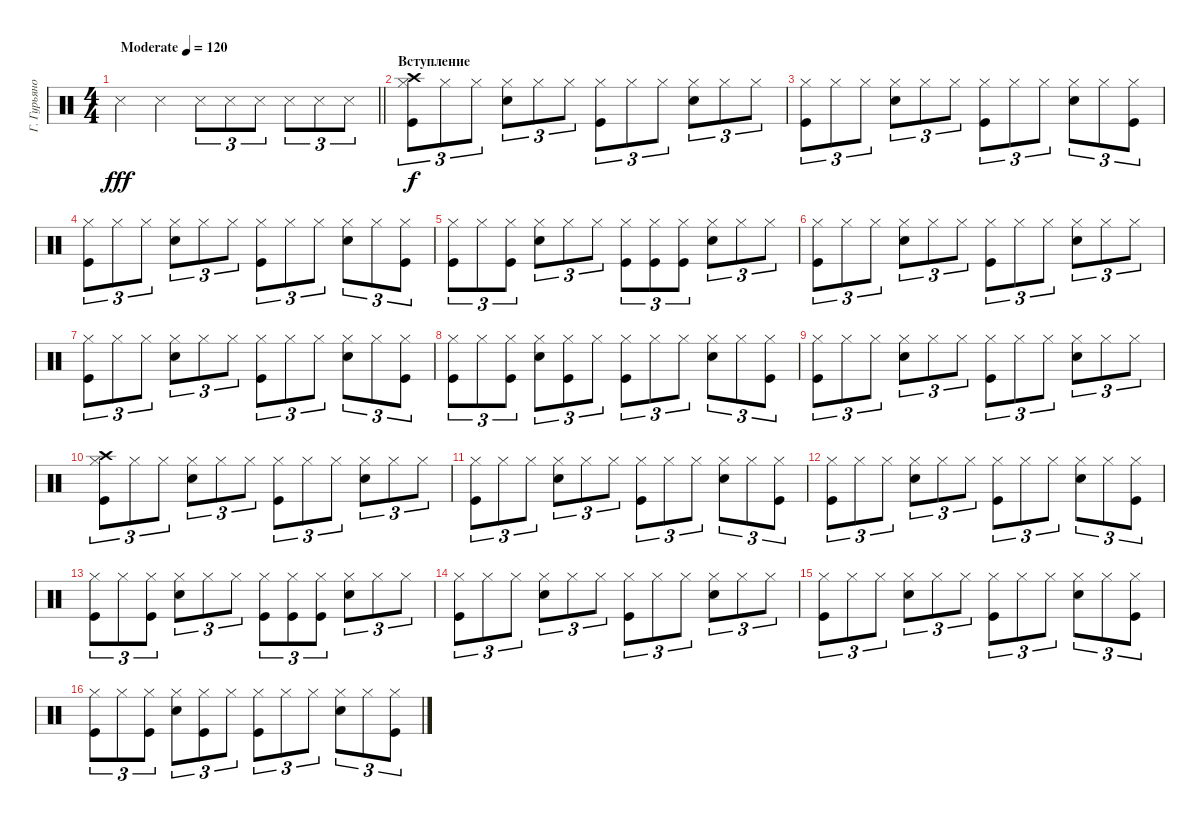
\track ("Г. Гурьянов" "Г. Гурьяно") {instrument percussion}
\staff
\articulation defaults
\ts (4 4)
\tempo (120 "Moderate")
\clef neutral
\barLineRight lightlight
\ks c "Metronome (hit)".4{dy fff} "Metronome (hit)".4 "Metronome (hit)".8{tu (3 2)} "Metronome (hit)".8{tu (3 2)} "Metronome (hit)".8{tu (3 2)} "Metronome (hit)".8{tu (3 2)} "Metronome (hit)".8{tu (3 2)} "Metronome (hit)".8{tu (3 2)}
|
\section ("" "Вступление")
("Hi-Hat (closed)" "Crash high (hit)" "Kick (hit)").8{tu (3 2) dy f} "Hi-Hat (closed)".8{tu (3 2)} "Hi-Hat (closed)".8{tu (3 2)} ("Hi-Hat (closed)" "Snare (hit) 2").8{tu (3 2)} "Hi-Hat (closed)".8{tu (3 2)} "Hi-Hat (closed)".8{tu (3 2)} ("Hi-Hat (closed)" "Kick (hit)").8{tu (3 2)} "Hi-Hat (closed)".8{tu (3 2)} "Hi-Hat (closed)".8{tu (3 2)} ("Hi-Hat (closed)" "Snare (hit) 2").8{tu (3 2)} "Hi-Hat (closed)".8{tu (3 2)} "Hi-Hat (closed)".8{tu (3 2)} |
("Hi-Hat (closed)" "Kick (hit)").8{tu (3 2)} "Hi-Hat (closed)".8{tu (3 2)} "Hi-Hat (closed)".8{tu (3 2)} ("Hi-Hat (closed)" "Snare (hit) 2").8{tu (3 2)} "Hi-Hat (closed)".8{tu (3 2)} "Hi-Hat (closed)".8{tu (3 2)} ("Hi-Hat (closed)" "Kick (hit)").8{tu (3 2)} "Hi-Hat (closed)".8{tu (3 2)} "Hi-Hat (closed)".8{tu (3 2)} ("Hi-Hat (closed)" "Snare (hit) 2").8{tu (3 2)} "Hi-Hat (closed)".8{tu (3 2)} ("Hi-Hat (closed)" "Kick (hit)").8{tu (3 2)} |
("Hi-Hat (closed)" "Kick (hit)").8{tu (3 2)} "Hi-Hat (closed)".8{tu (3 2)} "Hi-Hat (closed)".8{tu (3 2)} ("Hi-Hat (closed)" "Snare (hit) 2").8{tu (3 2)} "Hi-Hat (closed)".8{tu (3 2)} "Hi-Hat (closed)".8{tu (3 2)} ("Hi-Hat (closed)" "Kick (hit)").8{tu (3 2)} "Hi-Hat (closed)".8{tu (3 2)} "Hi-Hat (closed)".8{tu (3 2)} ("Hi-Hat (closed)" "Snare (hit) 2").8{tu (3 2)} "Hi-Hat (closed)".8{tu (3 2)} ("Hi-Hat (closed)" "Kick (hit)").8{tu (3 2)} |
("Hi-Hat (closed)" "Kick (hit)").8{tu (3 2)} "Hi-Hat (closed)".8{tu (3 2)} ("Hi-Hat (closed)" "Kick (hit)").8{tu (3 2)} ("Hi-Hat (closed)" "Snare (hit) 2").8{tu (3 2)} "Hi-Hat (closed)".8{tu (3 2)} "Hi-Hat (closed)".8{tu (3 2)} ("Hi-Hat (closed)" "Kick (hit)").8{tu (3 2)} ("Hi-Hat (closed)" "Kick (hit)").8{tu (3 2)} ("Hi-Hat (closed)" "Kick (hit)").8{tu (3 2)} ("Hi-Hat (closed)" "Snare (hit) 2").8{tu (3 2)} "Hi-Hat (closed)".8{tu (3 2)} "Hi-Hat (closed)".8{tu (3 2)} |
("Hi-Hat (closed)" "Kick (hit)").8{tu (3 2)} "Hi-Hat (closed)".8{tu (3 2)} "Hi-Hat (closed)".8{tu (3 2)} ("Hi-Hat (closed)" "Snare (hit) 2").8{tu (3 2)} "Hi-Hat (closed)".8{tu (3 2)} "Hi-Hat (closed)".8{tu (3 2)} ("Hi-Hat (closed)" "Kick (hit)").8{tu (3 2)} "Hi-Hat (closed)".8{tu (3 2)} "Hi-Hat (closed)".8{tu (3 2)} ("Hi-Hat (closed)" "Snare (hit) 2").8{tu (3 2)} "Hi-Hat (closed)".8{tu (3 2)} "Hi-Hat (closed)".8{tu (3 2)} |
("Hi-Hat (closed)" "Kick (hit)").8{tu (3 2)} "Hi-Hat (closed)".8{tu (3 2)} "Hi-Hat (closed)".8{tu (3 2)} ("Hi-Hat (closed)" "Snare (hit) 2").8{tu (3 2)} "Hi-Hat (closed)".8{tu (3 2)} "Hi-Hat (closed)".8{tu (3 2)} ("Hi-Hat (closed)" "Kick (hit)").8{tu (3 2)} "Hi-Hat (closed)".8{tu (3 2)} "Hi-Hat (closed)".8{tu (3 2)} ("Hi-Hat (closed)" "Snare (hit) 2").8{tu (3 2)} "Hi-Hat (closed)".8{tu (3 2)} ("Hi-Hat (closed)" "Kick (hit)").8{tu (3 2)} |
("Hi-Hat (closed)" "Kick (hit)").8{tu (3 2)} "Hi-Hat (closed)".8{tu (3 2)} ("Hi-Hat (closed)" "Kick (hit)").8{tu (3 2)} ("Hi-Hat (closed)" "Snare (hit) 2").8{tu (3 2)} ("Hi-Hat (closed)" "Kick (hit)").8{tu (3 2)} "Hi-Hat (closed)".8{tu (3 2)} ("Hi-Hat (closed)" "Kick (hit)").8{tu (3 2)} "Hi-Hat (closed)".8{tu (3 2)} "Hi-Hat (closed)".8{tu (3 2)} ("Hi-Hat (closed)" "Snare (hit) 2").8{tu (3 2)} "Hi-Hat (closed)".8{tu (3 2)} ("Hi-Hat (closed)" "Kick (hit)").8{tu (3 2)} |
("Hi-Hat (closed)" "Kick (hit)").8{tu (3 2)} "Hi-Hat (closed)".8{tu (3 2)} "Hi-Hat (closed)".8{tu (3 2)} ("Hi-Hat (closed)" "Snare (hit) 2").8{tu (3 2)} "Hi-Hat (closed)".8{tu (3 2)} "Hi-Hat (closed)".8{tu (3 2)} ("Hi-Hat (closed)" "Kick (hit)").8{tu (3 2)} "Hi-Hat (closed)".8{tu (3 2)} "Hi-Hat (closed)".8{tu (3 2)} ("Hi-Hat (closed)" "Snare (hit) 2").8{tu (3 2)} "Hi-Hat (closed)".8{tu (3 2)} "Hi-Hat (closed)".8{tu (3 2)} |
("Hi-Hat (closed)" "Crash high (hit)" "Kick (hit)").8{tu (3 2)} "Hi-Hat (closed)".8{tu (3 2)} "Hi-Hat (closed)".8{tu (3 2)} ("Hi-Hat (closed)" "Snare (hit) 2").8{tu (3 2)} "Hi-Hat (closed)".8{tu (3 2)} "Hi-Hat (closed)".8{tu (3 2)} ("Hi-Hat (closed)" "Kick (hit)").8{tu (3 2)} "Hi-Hat (closed)".8{tu (3 2)} "Hi-Hat (closed)".8{tu (3 2)} ("Hi-Hat (closed)" "Snare (hit) 2").8{tu (3 2)} "Hi-Hat (closed)".8{tu (3 2)} "Hi-Hat (closed)".8{tu (3 2)} |
("Hi-Hat (closed)" "Kick (hit)").8{tu (3 2)} "Hi-Hat (closed)".8{tu (3 2)} "Hi-Hat (closed)".8{tu (3 2)} ("Hi-Hat (closed)" "Snare (hit) 2").8{tu (3 2)} "Hi-Hat (closed)".8{tu (3 2)} "Hi-Hat (closed)".8{tu (3 2)} ("Hi-Hat (closed)" "Kick (hit)").8{tu (3 2)} "Hi-Hat (closed)".8{tu (3 2)} "Hi-Hat (closed)".8{tu (3 2)} ("Hi-Hat (closed)" "Snare (hit) 2").8{tu (3 2)} "Hi-Hat (closed)".8{tu (3 2)} ("Hi-Hat (closed)" "Kick (hit)").8{tu (3 2)} |
("Hi-Hat (closed)" "Kick (hit)").8{tu (3 2)} "Hi-Hat (closed)".8{tu (3 2)} "Hi-Hat (closed)".8{tu (3 2)} ("Hi-Hat (closed)" "Snare (hit) 2").8{tu (3 2)} "Hi-Hat (closed)".8{tu (3 2)} "Hi-Hat (closed)".8{tu (3 2)} ("Hi-Hat (closed)" "Kick (hit)").8{tu (3 2)} "Hi-Hat (closed)".8{tu (3 2)} "Hi-Hat (closed)".8{tu (3 2)} ("Hi-Hat (closed)" "Snare (hit) 2").8{tu (3 2)} "Hi-Hat (closed)".8{tu (3 2)} ("Hi-Hat (closed)" "Kick (hit)").8{tu (3 2)} |
("Hi-Hat (closed)" "Kick (hit)").8{tu (3 2)} "Hi-Hat (closed)".8{tu (3 2)} ("Hi-Hat (closed)" "Kick (hit)").8{tu (3 2)} ("Hi-Hat (closed)" "Snare (hit) 2").8{tu (3 2)} "Hi-Hat (closed)".8{tu (3 2)} "Hi-Hat (closed)".8{tu (3 2)} ("Hi-Hat (closed)" "Kick (hit)").8{tu (3 2)} ("Hi-Hat (closed)" "Kick (hit)").8{tu (3 2)} ("Hi-Hat (closed)" "Kick (hit)").8{tu (3 2)} ("Hi-Hat (closed)" "Snare (hit) 2").8{tu (3 2)} "Hi-Hat (closed)".8{tu (3 2)} "Hi-Hat (closed)".8{tu (3 2)} |
("Hi-Hat (closed)" "Kick (hit)").8{tu (3 2)} "Hi-Hat (closed)".8{tu (3 2)} "Hi-Hat (closed)".8{tu (3 2)} ("Hi-Hat (closed)" "Snare (hit) 2").8{tu (3 2)} "Hi-Hat (closed)".8{tu (3 2)} "Hi-Hat (closed)".8{tu (3 2)} ("Hi-Hat (closed)" "Kick (hit)").8{tu (3 2)} "Hi-Hat (closed)".8{tu (3 2)} "Hi-Hat (closed)".8{tu (3 2)} ("Hi-Hat (closed)" "Snare (hit) 2").8{tu (3 2)} "Hi-Hat (closed)".8{tu (3 2)} "Hi-Hat (closed)".8{tu (3 2)} |
("Hi-Hat (closed)" "Kick (hit)").8{tu (3 2)} "Hi-Hat (closed)".8{tu (3 2)} "Hi-Hat (closed)".8{tu (3 2)} ("Hi-Hat (closed)" "Snare (hit) 2").8{tu (3 2)} "Hi-Hat (closed)".8{tu (3 2)} "Hi-Hat (closed)".8{tu (3 2)} ("Hi-Hat (closed)" "Kick (hit)").8{tu (3 2)} "Hi-Hat (closed)".8{tu (3 2)} "Hi-Hat (closed)".8{tu (3 2)} ("Hi-Hat (closed)" "Snare (hit) 2").8{tu (3 2)} "Hi-Hat (closed)".8{tu (3 2)} ("Hi-Hat (closed)" "Kick (hit)").8{tu (3 2)} |
("Hi-Hat (closed)" "Kick (hit)").8{tu (3 2)} "Hi-Hat (closed)".8{tu (3 2)} ("Hi-Hat (closed)" "Kick (hit)").8{tu (3 2)} ("Hi-Hat (closed)" "Snare (hit) 2").8{tu (3 2)} ("Hi-Hat (closed)" "Kick (hit)").8{tu (3 2)} "Hi-Hat (closed)".8{tu (3 2)} ("Hi-Hat (closed)" "Kick (hit)").8{tu (3 2)} "Hi-Hat (closed)".8{tu (3 2)} "Hi-Hat (closed)".8{tu (3 2)} ("Hi-Hat (closed)" "Snare (hit) 2").8{tu (3 2)} "Hi-Hat (closed)".8{tu (3 2)} ("Hi-Hat (closed)" "Kick (hit)").8{tu (3 2)}
